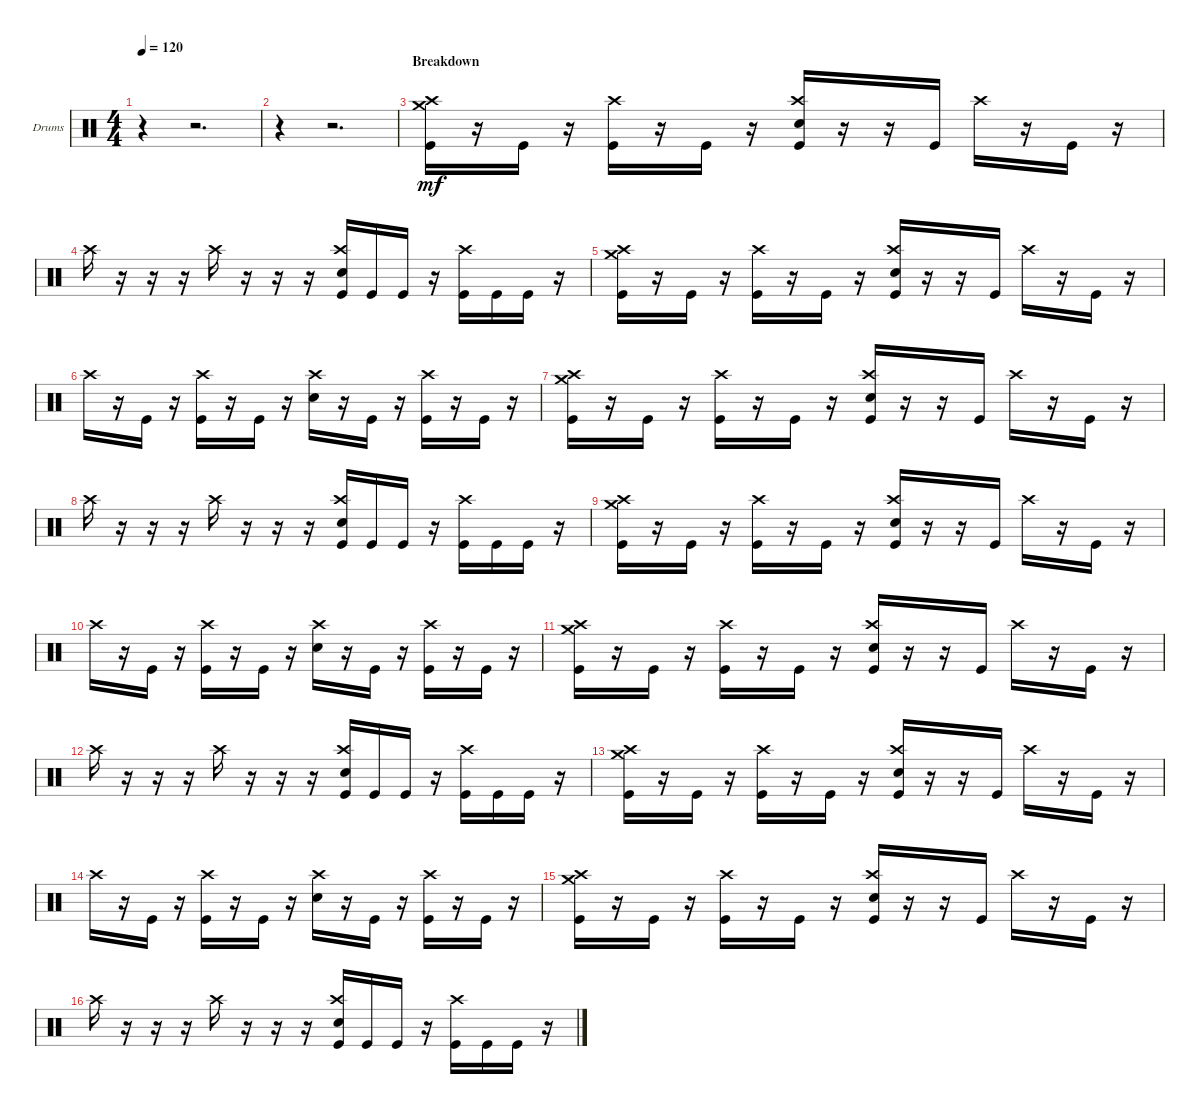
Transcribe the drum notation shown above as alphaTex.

\bracketExtendMode groupsimilarinstruments
\firstSystemTrackNameOrientation horizontal
\otherSystemsTrackNameOrientation horizontal
\track ("Drumkit" "Drums") {instrument percussion}
\staff {score}
\articulation defaults
\ts (4 4)
\tempo 120
\clef neutral
\ks c
r.4{dy mf} r.2{d} |
r.4 r.2{d} |
\section ("" "Breakdown")
("Kick (hit)" "Crash medium (hit)" "Crash high (hit)").16 r.16 "Kick (hit)".16 r.16 ("Kick (hit)" "Crash high (hit)").16 r.16 "Kick (hit)".16 r.16 ("Kick (hit)" "Crash high (hit)" "Snare (hit) 2").16 r.16 r.16 "Kick (hit)".16 "Crash high (hit)".16 r.16 "Kick (hit)".16 r.16 |
"Crash high (hit)".16 r.16 r.16 r.16 "Crash high (hit)".16 r.16 r.16 r.16 ("Kick (hit)" "Crash high (hit)" "Snare (hit) 2").16 "Kick (hit)".16 "Kick (hit)".16 r.16 ("Kick (hit)" "Crash high (hit)").16 "Kick (hit)".16 "Kick (hit)".16 r.16 |
("Kick (hit)" "Crash medium (hit)" "Crash high (hit)").16 r.16 "Kick (hit)".16 r.16 ("Kick (hit)" "Crash high (hit)").16 r.16 "Kick (hit)".16 r.16 ("Kick (hit)" "Crash high (hit)" "Snare (hit) 2").16 r.16 r.16 "Kick (hit)".16 "Crash high (hit)".16 r.16 "Kick (hit)".16 r.16 |
"Crash high (hit)".16 r.16 "Kick (hit)".16 r.16 ("Kick (hit)" "Crash high (hit)").16 r.16 "Kick (hit)".16 r.16 ("Crash high (hit)" "Snare (hit) 2").16 r.16 "Kick (hit)".16 r.16 ("Kick (hit)" "Crash high (hit)").16 r.16 "Kick (hit)".16 r.16 |
("Kick (hit)" "Crash medium (hit)" "Crash high (hit)").16 r.16 "Kick (hit)".16 r.16 ("Kick (hit)" "Crash high (hit)").16 r.16 "Kick (hit)".16 r.16 ("Kick (hit)" "Crash high (hit)" "Snare (hit) 2").16 r.16 r.16 "Kick (hit)".16 "Crash high (hit)".16 r.16 "Kick (hit)".16 r.16 |
"Crash high (hit)".16 r.16 r.16 r.16 "Crash high (hit)".16 r.16 r.16 r.16 ("Kick (hit)" "Crash high (hit)" "Snare (hit) 2").16 "Kick (hit)".16 "Kick (hit)".16 r.16 ("Kick (hit)" "Crash high (hit)").16 "Kick (hit)".16 "Kick (hit)".16 r.16 |
("Kick (hit)" "Crash medium (hit)" "Crash high (hit)").16 r.16 "Kick (hit)".16 r.16 ("Kick (hit)" "Crash high (hit)").16 r.16 "Kick (hit)".16 r.16 ("Kick (hit)" "Crash high (hit)" "Snare (hit) 2").16 r.16 r.16 "Kick (hit)".16 "Crash high (hit)".16 r.16 "Kick (hit)".16 r.16 |
"Crash high (hit)".16 r.16 "Kick (hit)".16 r.16 ("Kick (hit)" "Crash high (hit)").16 r.16 "Kick (hit)".16 r.16 ("Crash high (hit)" "Snare (hit) 2").16 r.16 "Kick (hit)".16 r.16 ("Kick (hit)" "Crash high (hit)").16 r.16 "Kick (hit)".16 r.16 |
("Kick (hit)" "Crash medium (hit)" "Crash high (hit)").16 r.16 "Kick (hit)".16 r.16 ("Kick (hit)" "Crash high (hit)").16 r.16 "Kick (hit)".16 r.16 ("Kick (hit)" "Crash high (hit)" "Snare (hit) 2").16 r.16 r.16 "Kick (hit)".16 "Crash high (hit)".16 r.16 "Kick (hit)".16 r.16 |
"Crash high (hit)".16 r.16 r.16 r.16 "Crash high (hit)".16 r.16 r.16 r.16 ("Kick (hit)" "Crash high (hit)" "Snare (hit) 2").16 "Kick (hit)".16 "Kick (hit)".16 r.16 ("Kick (hit)" "Crash high (hit)").16 "Kick (hit)".16 "Kick (hit)".16 r.16 |
("Kick (hit)" "Crash medium (hit)" "Crash high (hit)").16 r.16 "Kick (hit)".16 r.16 ("Kick (hit)" "Crash high (hit)").16 r.16 "Kick (hit)".16 r.16 ("Kick (hit)" "Crash high (hit)" "Snare (hit) 2").16 r.16 r.16 "Kick (hit)".16 "Crash high (hit)".16 r.16 "Kick (hit)".16 r.16 |
"Crash high (hit)".16 r.16 "Kick (hit)".16 r.16 ("Kick (hit)" "Crash high (hit)").16 r.16 "Kick (hit)".16 r.16 ("Crash high (hit)" "Snare (hit) 2").16 r.16 "Kick (hit)".16 r.16 ("Kick (hit)" "Crash high (hit)").16 r.16 "Kick (hit)".16 r.16 |
("Kick (hit)" "Crash medium (hit)" "Crash high (hit)").16 r.16 "Kick (hit)".16 r.16 ("Kick (hit)" "Crash high (hit)").16 r.16 "Kick (hit)".16 r.16 ("Kick (hit)" "Crash high (hit)" "Snare (hit) 2").16 r.16 r.16 "Kick (hit)".16 "Crash high (hit)".16 r.16 "Kick (hit)".16 r.16 |
"Crash high (hit)".16 r.16 r.16 r.16 "Crash high (hit)".16 r.16 r.16 r.16 ("Kick (hit)" "Crash high (hit)" "Snare (hit) 2").16 "Kick (hit)".16 "Kick (hit)".16 r.16 ("Kick (hit)" "Crash high (hit)").16 "Kick (hit)".16 "Kick (hit)".16 r.16
